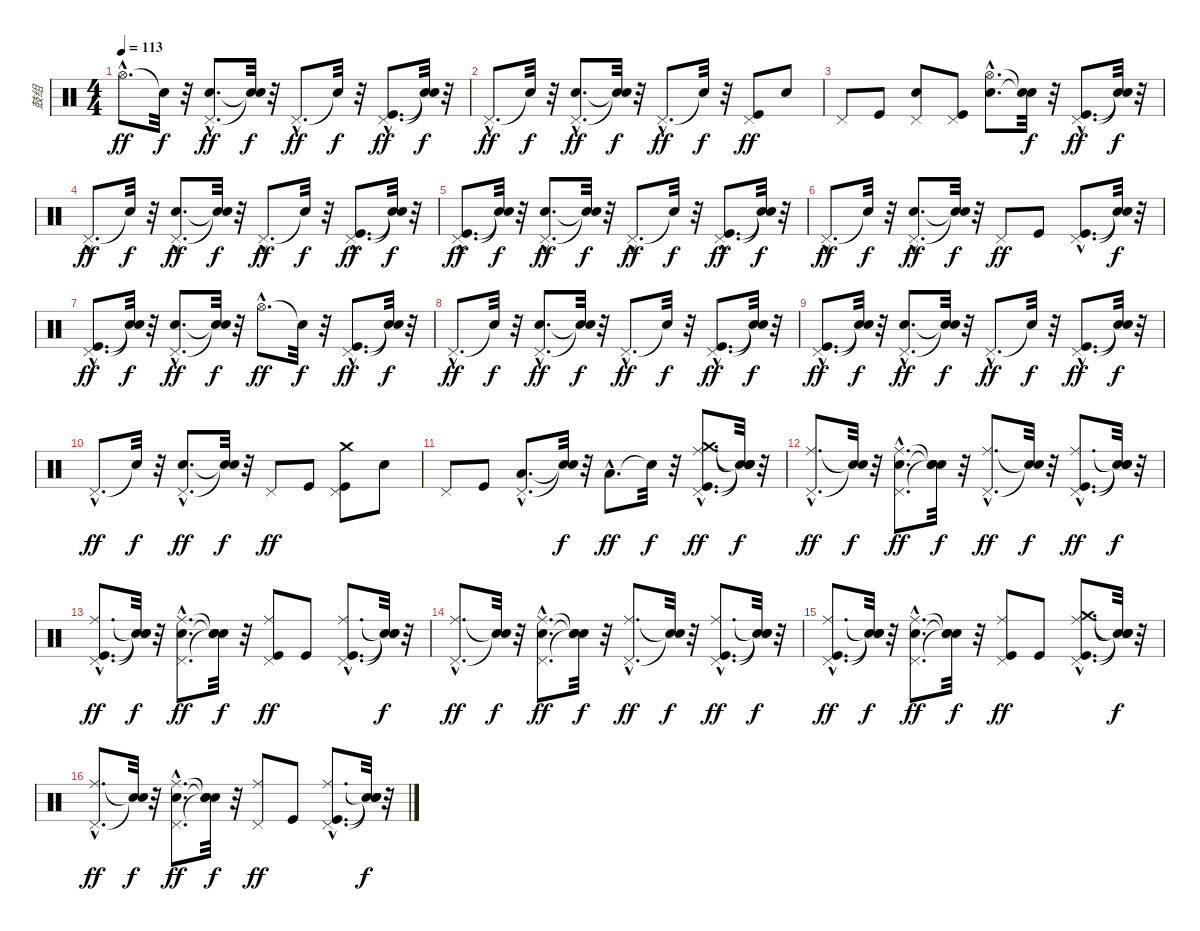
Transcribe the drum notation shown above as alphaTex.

\track ("鼓组" "鼓组") {instrument percussion}
\staff {score}
\articulation defaults
\ts (4 4)
\tempo 113
\clef neutral
\ks c "Hi-Hat (open)"{hac}.8{d dy ff} "Snare (hit)"{t}.32{dy f}
r.32 ("Snare (hit) 2"{hac} "Pedal Hi-Hat (hit)"{hac}).8{d dy ff} ("Snare (hit)"{t} "Snare (hit)"{t}).32{dy f} r.32 "Pedal Hi-Hat (hit)"{hac}.8{d dy ff} "Snare (hit)"{t}.32{dy f} r.32 ("Kick (hit)"{hac} "Pedal Hi-Hat (hit)"{hac}).8{d dy ff} ("Snare (hit)"{t} "Snare (hit)"{t}).32{dy f} r.32 |
"Pedal Hi-Hat (hit)"{hac}.8{d dy ff} "Snare (hit)"{t}.32{dy f} r.32 ("Snare (hit) 2"{hac} "Pedal Hi-Hat (hit)"{hac}).8{d dy ff} ("Snare (hit)"{t} "Snare (hit)"{t}).32{dy f} r.32 "Pedal Hi-Hat (hit)"{hac}.8{d dy ff} "Snare (hit)"{t}.32{dy f} r.32 ("Kick (hit)" "Pedal Hi-Hat (hit)").8{dy ff} "Snare (hit) 2".8 |
"Pedal Hi-Hat (hit)".8 "Kick (hit)".8 ("Snare (hit) 2" "Pedal Hi-Hat (hit)").8 ("Kick (hit)" "Pedal Hi-Hat (hit)").8 ("Snare (hit) 2"{hac} "Hi-Hat (open)"{hac}).8{d} ("Snare (hit)"{t} "Snare (hit)"{t}).32{dy f} r.32 ("Kick (hit)"{hac} "Pedal Hi-Hat (hit)"{hac}).8{d dy ff} ("Snare (hit)"{t} "Snare (hit)"{t}).32{dy f} r.32 |
"Pedal Hi-Hat (hit)"{hac}.8{d dy ff} "Snare (hit)"{t}.32{dy f} r.32 ("Snare (hit) 2"{hac} "Pedal Hi-Hat (hit)"{hac}).8{d dy ff} ("Snare (hit)"{t} "Snare (hit)"{t}).32{dy f} r.32 "Pedal Hi-Hat (hit)"{hac}.8{d dy ff} "Snare (hit)"{t}.32{dy f} r.32 ("Kick (hit)"{hac} "Pedal Hi-Hat (hit)"{hac}).8{d dy ff} ("Snare (hit)"{t} "Snare (hit)"{t}).32{dy f} r.32 |
("Kick (hit)"{hac} "Pedal Hi-Hat (hit)"{hac}).8{d dy ff} ("Snare (hit)"{t} "Snare (hit)"{t}).32{dy f} r.32 ("Snare (hit) 2"{hac} "Pedal Hi-Hat (hit)"{hac}).8{d dy ff} ("Snare (hit)"{t} "Snare (hit)"{t}).32{dy f} r.32 "Pedal Hi-Hat (hit)"{hac}.8{d dy ff} "Snare (hit)"{t}.32{dy f} r.32 ("Kick (hit)"{hac} "Pedal Hi-Hat (hit)"{hac}).8{d dy ff} ("Snare (hit)"{t} "Snare (hit)"{t}).32{dy f} r.32 |
"Pedal Hi-Hat (hit)"{hac}.8{d dy ff} "Snare (hit)"{t}.32{dy f} r.32 ("Snare (hit) 2"{hac} "Pedal Hi-Hat (hit)"{hac}).8{d dy ff} ("Snare (hit)"{t} "Snare (hit)"{t}).32{dy f} r.32 "Pedal Hi-Hat (hit)".8{dy ff} "Kick (hit)".8 ("Kick (hit)"{hac} "Pedal Hi-Hat (hit)"{hac}).8{d} ("Snare (hit)"{t} "Snare (hit)"{t}).32{dy f} r.32 |
("Kick (hit)"{hac} "Pedal Hi-Hat (hit)"{hac}).8{d dy ff} ("Snare (hit)"{t} "Snare (hit)"{t}).32{dy f} r.32 ("Snare (hit) 2"{hac} "Pedal Hi-Hat (hit)"{hac}).8{d dy ff} ("Snare (hit)"{t} "Snare (hit)"{t}).32{dy f} r.32 "Hi-Hat (open)"{hac}.8{d dy ff} "Snare (hit)"{t}.32{dy f} r.32 ("Kick (hit)"{hac} "Pedal Hi-Hat (hit)"{hac}).8{d dy ff} ("Snare (hit)"{t} "Snare (hit)"{t}).32{dy f} r.32 |
"Pedal Hi-Hat (hit)"{hac}.8{d dy ff} "Snare (hit)"{t}.32{dy f} r.32 ("Snare (hit) 2"{hac} "Pedal Hi-Hat (hit)"{hac}).8{d dy ff} ("Snare (hit)"{t} "Snare (hit)"{t}).32{dy f} r.32 "Pedal Hi-Hat (hit)"{hac}.8{d dy ff} "Snare (hit)"{t}.32{dy f} r.32 ("Kick (hit)"{hac} "Pedal Hi-Hat (hit)"{hac}).8{d dy ff} ("Snare (hit)"{t} "Snare (hit)"{t}).32{dy f} r.32 |
("Kick (hit)"{hac} "Pedal Hi-Hat (hit)"{hac}).8{d dy ff} ("Snare (hit)"{t} "Snare (hit)"{t}).32{dy f} r.32 ("Snare (hit) 2"{hac} "Pedal Hi-Hat (hit)"{hac}).8{d dy ff} ("Snare (hit)"{t} "Snare (hit)"{t}).32{dy f} r.32 "Pedal Hi-Hat (hit)"{hac}.8{d dy ff} "Snare (hit)"{t}.32{dy f} r.32 ("Kick (hit)"{hac} "Pedal Hi-Hat (hit)"{hac}).8{d dy ff} ("Snare (hit)"{t} "Snare (hit)"{t}).32{dy f} r.32 |
"Pedal Hi-Hat (hit)"{hac}.8{d dy ff} "Snare (hit)"{t}.32{dy f} r.32 ("Snare (hit) 2"{hac} "Pedal Hi-Hat (hit)"{hac}).8{d dy ff} ("Snare (hit)"{t} "Snare (hit)"{t}).32{dy f} r.32 "Pedal Hi-Hat (hit)".8{dy ff} "Kick (hit)".8 ("Kick (hit)" "Pedal Hi-Hat (hit)" "Crash medium (hit)").8 "Snare (hit) 2".8 |
"Pedal Hi-Hat (hit)".8 "Kick (hit)".8 ("Pedal Hi-Hat (hit)"{hac} "Low Tom (hit)"{hac}).8{d} ("Snare (hit)"{t} "Snare (hit)"{t}).32{dy f} r.32 "Low Floor Tom (hit)"{hac}.8{d dy ff} "Snare (hit)"{t}.32{dy f} r.32 ("Kick (hit)"{hac} "Pedal Hi-Hat (hit)"{hac} "Ride (middle)"{hac} "Crash medium (hit)"{hac}).8{d dy ff} ("Snare (hit)"{t} "Snare (hit)"{t} "Snare (hit)"{t} "Snare (hit)"{t}).32{dy f} r.32 |
("Pedal Hi-Hat (hit)"{hac} "Ride (middle)"{hac}).8{d dy ff} ("Snare (hit)"{t} "Snare (hit)"{t}).32{dy f} r.32 ("Snare (hit) 2"{hac} "Pedal Hi-Hat (hit)"{hac} "Ride (middle)"{hac}).8{d dy ff} ("Snare (hit)"{t} "Snare (hit)"{t} "Snare (hit)"{t}).32{dy f} r.32 ("Pedal Hi-Hat (hit)"{hac} "Ride (middle)"{hac}).8{d dy ff} ("Snare (hit)"{t} "Snare (hit)"{t}).32{dy f} r.32 ("Kick (hit)"{hac} "Pedal Hi-Hat (hit)"{hac} "Ride (middle)"{hac}).8{d dy ff} ("Snare (hit)"{t} "Snare (hit)"{t} "Snare (hit)"{t}).32{dy f} r.32 |
("Kick (hit)"{hac} "Pedal Hi-Hat (hit)"{hac} "Ride (middle)"{hac}).8{d dy ff} ("Snare (hit)"{t} "Snare (hit)"{t} "Snare (hit)"{t}).32{dy f} r.32 ("Snare (hit) 2"{hac} "Pedal Hi-Hat (hit)"{hac} "Ride (middle)"{hac}).8{d dy ff} ("Snare (hit)"{t} "Snare (hit)"{t} "Snare (hit)"{t}).32{dy f} r.32 ("Kick (hit)" "Pedal Hi-Hat (hit)" "Ride (middle)").8{dy ff} "Kick (hit)".8 ("Kick (hit)"{hac} "Pedal Hi-Hat (hit)"{hac} "Ride (middle)"{hac}).8{d} ("Snare (hit)"{t} "Snare (hit)"{t} "Snare (hit)"{t}).32{dy f} r.32 |
("Pedal Hi-Hat (hit)"{hac} "Ride (middle)"{hac}).8{d dy ff} ("Snare (hit)"{t} "Snare (hit)"{t}).32{dy f} r.32 ("Snare (hit) 2"{hac} "Pedal Hi-Hat (hit)"{hac} "Ride (middle)"{hac}).8{d dy ff} ("Snare (hit)"{t} "Snare (hit)"{t} "Snare (hit)"{t}).32{dy f} r.32 ("Pedal Hi-Hat (hit)"{hac} "Ride (middle)"{hac}).8{d dy ff} ("Snare (hit)"{t} "Snare (hit)"{t}).32{dy f} r.32 ("Kick (hit)"{hac} "Pedal Hi-Hat (hit)"{hac} "Ride (middle)"{hac}).8{d dy ff} ("Snare (hit)"{t} "Snare (hit)"{t} "Snare (hit)"{t}).32{dy f} r.32 |
("Kick (hit)"{hac} "Pedal Hi-Hat (hit)"{hac} "Ride (middle)"{hac}).8{d dy ff} ("Snare (hit)"{t} "Snare (hit)"{t} "Snare (hit)"{t}).32{dy f} r.32 ("Snare (hit) 2"{hac} "Pedal Hi-Hat (hit)"{hac} "Ride (middle)"{hac}).8{d dy ff} ("Snare (hit)"{t} "Snare (hit)"{t} "Snare (hit)"{t}).32{dy f} r.32 ("Kick (hit)" "Pedal Hi-Hat (hit)" "Ride (middle)").8{dy ff} "Kick (hit)".8 ("Kick (hit)"{hac} "Pedal Hi-Hat (hit)"{hac} "Ride (middle)"{hac} "Crash medium (hit)"{hac}).8{d} ("Snare (hit)"{t} "Snare (hit)"{t} "Snare (hit)"{t} "Snare (hit)"{t}).32{dy f} r.32 |
("Pedal Hi-Hat (hit)"{hac} "Ride (middle)"{hac}).8{d dy ff} ("Snare (hit)"{t} "Snare (hit)"{t}).32{dy f} r.32 ("Snare (hit) 2"{hac} "Pedal Hi-Hat (hit)"{hac} "Ride (middle)"{hac}).8{d dy ff} ("Snare (hit)"{t} "Snare (hit)"{t} "Snare (hit)"{t}).32{dy f} r.32 ("Pedal Hi-Hat (hit)" "Ride (middle)").8{dy ff} "Kick (hit)".8 ("Kick (hit)"{hac} "Pedal Hi-Hat (hit)"{hac} "Ride (middle)"{hac}).8{d} ("Snare (hit)"{t} "Snare (hit)"{t} "Snare (hit)"{t}).32{dy f} r.32
